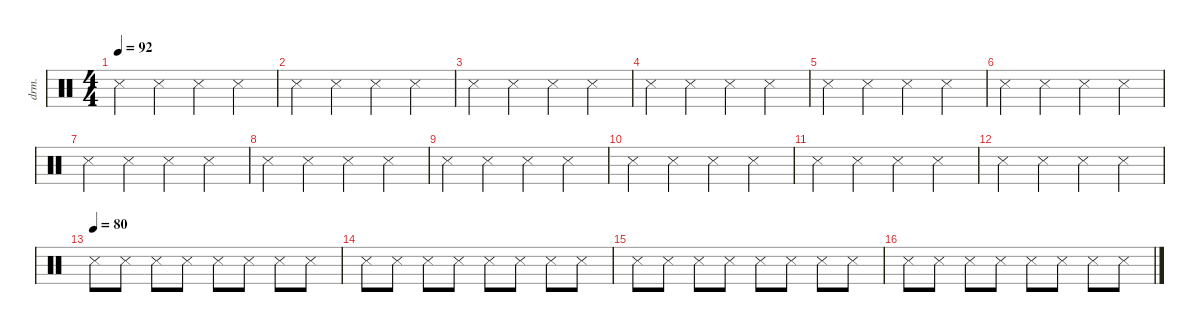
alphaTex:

\defaultSystemsLayout 4
\hideDynamics
\bracketExtendMode nobrackets
\otherSystemsTrackNameOrientation horizontal
\track ("Drumkit" "drm.") {instrument percussion}
\staff {score}
\articulation defaults
\ts (4 4)
\tempo 92
\clef neutral
\ks c "Metronome (hit)".4{dy mf} "Metronome (hit)".4 "Metronome (hit)".4 "Metronome (hit)".4
|
"Metronome (hit)".4 "Metronome (hit)".4 "Metronome (hit)".4 "Metronome (hit)".4 |
"Metronome (hit)".4 "Metronome (hit)".4 "Metronome (hit)".4 "Metronome (hit)".4 |
"Metronome (hit)".4 "Metronome (hit)".4 "Metronome (hit)".4 "Metronome (hit)".4 |
"Metronome (hit)".4 "Metronome (hit)".4 "Metronome (hit)".4 "Metronome (hit)".4 |
"Metronome (hit)".4 "Metronome (hit)".4 "Metronome (hit)".4 "Metronome (hit)".4 |
"Metronome (hit)".4 "Metronome (hit)".4 "Metronome (hit)".4 "Metronome (hit)".4 |
"Metronome (hit)".4 "Metronome (hit)".4 "Metronome (hit)".4 "Metronome (hit)".4 |
"Metronome (hit)".4 "Metronome (hit)".4 "Metronome (hit)".4 "Metronome (hit)".4 |
"Metronome (hit)".4 "Metronome (hit)".4 "Metronome (hit)".4 "Metronome (hit)".4 |
"Metronome (hit)".4 "Metronome (hit)".4 "Metronome (hit)".4 "Metronome (hit)".4 |
"Metronome (hit)".4 "Metronome (hit)".4 "Metronome (hit)".4 "Metronome (hit)".4 |
\tempo (80)
"Metronome (hit)".8 "Metronome (hit)".8 "Metronome (hit)".8 "Metronome (hit)".8 "Metronome (hit)".8 "Metronome (hit)".8 "Metronome (hit)".8 "Metronome (hit)".8 |
"Metronome (hit)".8 "Metronome (hit)".8 "Metronome (hit)".8 "Metronome (hit)".8 "Metronome (hit)".8 "Metronome (hit)".8 "Metronome (hit)".8 "Metronome (hit)".8 |
"Metronome (hit)".8 "Metronome (hit)".8 "Metronome (hit)".8 "Metronome (hit)".8 "Metronome (hit)".8 "Metronome (hit)".8 "Metronome (hit)".8 "Metronome (hit)".8 |
"Metronome (hit)".8 "Metronome (hit)".8 "Metronome (hit)".8 "Metronome (hit)".8 "Metronome (hit)".8 "Metronome (hit)".8 "Metronome (hit)".8 "Metronome (hit)".8
